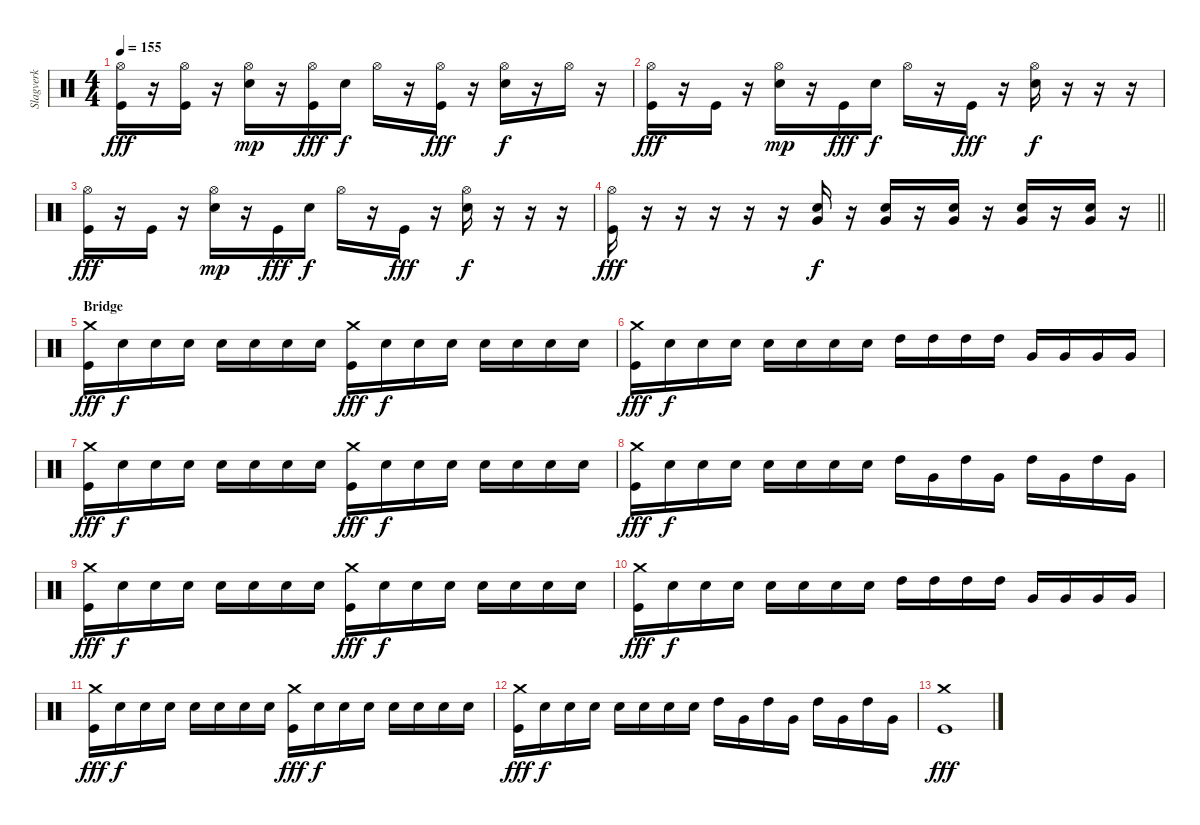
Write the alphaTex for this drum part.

\track ("Slagverk" "Slagverk") {instrument percussion}
\staff {score}
\articulation defaults
\ts (4 4)
\tempo 155
\clef neutral
\ks c
("Hi-Hat (open)" "Kick (hit)").16{dy fff} r.16 ("Hi-Hat (open)" "Kick (hit)").16 r.16 ("Hi-Hat (open)" "Electric Snare (hit)").16{dy mp} r.16 ("Hi-Hat (open)" "Kick (hit)").16{dy fff} "Electric Snare (hit)".16{dy f} "Hi-Hat (open)".16 r.16 ("Hi-Hat (open)" "Kick (hit)").16{dy fff} r.16 ("Hi-Hat (open)" "Electric Snare (hit)").16{dy f} r.16 "Hi-Hat (open)".16 r.16 |
("Hi-Hat (open)" "Kick (hit)").16{dy fff} r.16 "Kick (hit)".16 r.16 ("Hi-Hat (open)" "Electric Snare (hit)").16{dy mp} r.16 "Kick (hit)".16{dy fff} "Electric Snare (hit)".16{dy f} "Hi-Hat (open)".16 r.16 "Kick (hit)".16{dy fff} r.16 ("Hi-Hat (open)" "Electric Snare (hit)").16{dy f} r.16 r.16 r.16 |
("Hi-Hat (open)" "Kick (hit)").16{dy fff} r.16 "Kick (hit)".16 r.16 ("Hi-Hat (open)" "Electric Snare (hit)").16{dy mp} r.16 "Kick (hit)".16{dy fff} "Electric Snare (hit)".16{dy f} "Hi-Hat (open)".16 r.16 "Kick (hit)".16{dy fff} r.16 ("Hi-Hat (open)" "Electric Snare (hit)").16{dy f} r.16 r.16 r.16 |
\barLineRight lightlight
("Hi-Hat (open)" "Kick (hit)").16{dy fff} r.16 r.16 r.16 r.16 r.16 ("Very Low Tom (hit)" "Electric Snare (hit)").16{dy f} r.16 ("Very Low Tom (hit)" "Electric Snare (hit)").16 r.16 ("Very Low Tom (hit)" "Electric Snare (hit)").16 r.16 ("Very Low Tom (hit)" "Electric Snare (hit)").16 r.16 ("Very Low Tom (hit)" "Electric Snare (hit)").16 r.16 |
\section ("" "Bridge")
("Crash medium (hit)" "Kick (hit)").16{dy fff} "Electric Snare (hit)".16{dy f} "Electric Snare (hit)".16 "Electric Snare (hit)".16 "Electric Snare (hit)".16 "Electric Snare (hit)".16 "Electric Snare (hit)".16 "Electric Snare (hit)".16 ("Crash medium (hit)" "Kick (hit)").16{dy fff} "Electric Snare (hit)".16{dy f} "Electric Snare (hit)".16 "Electric Snare (hit)".16 "Electric Snare (hit)".16 "Electric Snare (hit)".16 "Electric Snare (hit)".16 "Electric Snare (hit)".16 |
("Crash medium (hit)" "Kick (hit)").16{dy fff} "Electric Snare (hit)".16{dy f} "Electric Snare (hit)".16 "Electric Snare (hit)".16 "Electric Snare (hit)".16 "Electric Snare (hit)".16 "Electric Snare (hit)".16 "Electric Snare (hit)".16 "High Tom (hit)".16 "High Tom (hit)".16 "High Tom (hit)".16 "High Tom (hit)".16 "Very Low Tom (hit)".16 "Very Low Tom (hit)".16 "Very Low Tom (hit)".16 "Very Low Tom (hit)".16 |
("Crash medium (hit)" "Kick (hit)").16{dy fff} "Electric Snare (hit)".16{dy f} "Electric Snare (hit)".16 "Electric Snare (hit)".16 "Electric Snare (hit)".16 "Electric Snare (hit)".16 "Electric Snare (hit)".16 "Electric Snare (hit)".16 ("Crash medium (hit)" "Kick (hit)").16{dy fff} "Electric Snare (hit)".16{dy f} "Electric Snare (hit)".16 "Electric Snare (hit)".16 "Electric Snare (hit)".16 "Electric Snare (hit)".16 "Electric Snare (hit)".16 "Electric Snare (hit)".16 |
("Crash medium (hit)" "Kick (hit)").16{dy fff} "Electric Snare (hit)".16{dy f} "Electric Snare (hit)".16 "Electric Snare (hit)".16 "Electric Snare (hit)".16 "Electric Snare (hit)".16 "Electric Snare (hit)".16 "Electric Snare (hit)".16 "High Tom (hit)".16 "Very Low Tom (hit)".16 "High Tom (hit)".16 "Very Low Tom (hit)".16 "High Tom (hit)".16 "Very Low Tom (hit)".16 "High Tom (hit)".16 "Very Low Tom (hit)".16 |
("Crash medium (hit)" "Kick (hit)").16{dy fff} "Electric Snare (hit)".16{dy f} "Electric Snare (hit)".16 "Electric Snare (hit)".16 "Electric Snare (hit)".16 "Electric Snare (hit)".16 "Electric Snare (hit)".16 "Electric Snare (hit)".16 ("Crash medium (hit)" "Kick (hit)").16{dy fff} "Electric Snare (hit)".16{dy f} "Electric Snare (hit)".16 "Electric Snare (hit)".16 "Electric Snare (hit)".16 "Electric Snare (hit)".16 "Electric Snare (hit)".16 "Electric Snare (hit)".16 |
("Crash medium (hit)" "Kick (hit)").16{dy fff} "Electric Snare (hit)".16{dy f} "Electric Snare (hit)".16 "Electric Snare (hit)".16 "Electric Snare (hit)".16 "Electric Snare (hit)".16 "Electric Snare (hit)".16 "Electric Snare (hit)".16 "High Tom (hit)".16 "High Tom (hit)".16 "High Tom (hit)".16 "High Tom (hit)".16 "Very Low Tom (hit)".16 "Very Low Tom (hit)".16 "Very Low Tom (hit)".16 "Very Low Tom (hit)".16 |
("Crash medium (hit)" "Kick (hit)").16{dy fff} "Electric Snare (hit)".16{dy f} "Electric Snare (hit)".16 "Electric Snare (hit)".16 "Electric Snare (hit)".16 "Electric Snare (hit)".16 "Electric Snare (hit)".16 "Electric Snare (hit)".16 ("Crash medium (hit)" "Kick (hit)").16{dy fff} "Electric Snare (hit)".16{dy f} "Electric Snare (hit)".16 "Electric Snare (hit)".16 "Electric Snare (hit)".16 "Electric Snare (hit)".16 "Electric Snare (hit)".16 "Electric Snare (hit)".16 |
("Crash medium (hit)" "Kick (hit)").16{dy fff} "Electric Snare (hit)".16{dy f} "Electric Snare (hit)".16 "Electric Snare (hit)".16 "Electric Snare (hit)".16 "Electric Snare (hit)".16 "Electric Snare (hit)".16 "Electric Snare (hit)".16 "High Tom (hit)".16 "Very Low Tom (hit)".16 "High Tom (hit)".16 "Very Low Tom (hit)".16 "High Tom (hit)".16 "Very Low Tom (hit)".16 "High Tom (hit)".16 "Very Low Tom (hit)".16 |
("Crash medium (hit)" "Kick (hit)").1{dy fff}
